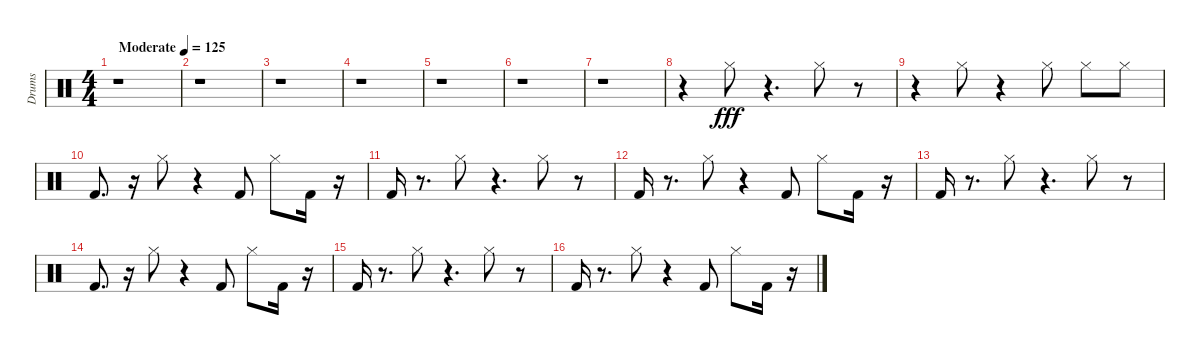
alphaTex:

\track ("Drums" "Drums") {instrument percussion}
\staff {score}
\articulation defaults
\ts (4 4)
\tempo (125 "Moderate")
\clef neutral
\ks c
r.1{dy fff} |
r.1 |
r.1 |
r.1 |
r.1 |
r.1 |
r.1 |
r.4 "Hi-Hat (closed)".8 r.4{d} "Hi-Hat (closed)".8 r.8 |
r.4 "Hi-Hat (closed)".8 r.4 "Hi-Hat (closed)".8 "Hi-Hat (closed)".8 "Hi-Hat (closed)".8 |
"Kick (hit) 2".8{d} r.16 "Hi-Hat (closed)".8 r.4 "Kick (hit) 2".8 "Hi-Hat (closed)".8 "Kick (hit) 2".16 r.16 |
"Kick (hit) 2".16 r.8{d} "Hi-Hat (closed)".8 r.4{d} "Hi-Hat (closed)".8 r.8 |
"Kick (hit) 2".16 r.8{d} "Hi-Hat (closed)".8 r.4 "Kick (hit) 2".8 "Hi-Hat (closed)".8 "Kick (hit) 2".16 r.16 |
"Kick (hit) 2".16 r.8{d} "Hi-Hat (closed)".8 r.4{d} "Hi-Hat (closed)".8 r.8 |
"Kick (hit) 2".8{d} r.16 "Hi-Hat (closed)".8 r.4 "Kick (hit) 2".8 "Hi-Hat (closed)".8 "Kick (hit) 2".16 r.16 |
"Kick (hit) 2".16 r.8{d} "Hi-Hat (closed)".8 r.4{d} "Hi-Hat (closed)".8 r.8 |
"Kick (hit) 2".16 r.8{d} "Hi-Hat (closed)".8 r.4 "Kick (hit) 2".8 "Hi-Hat (closed)".8 "Kick (hit) 2".16 r.16
